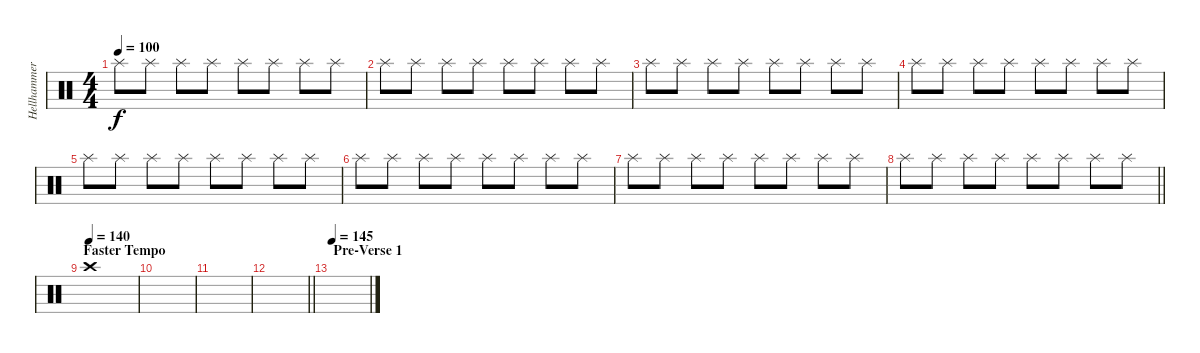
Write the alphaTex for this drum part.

\track ("Hellhammer 2" "Hellhammer") {instrument percussion}
\staff {score}
\articulation defaults
\ts (4 4)
\tempo 100
\clef neutral
\ks c "Splash (hit)".8{dy f} "Splash (hit)".8 "Splash (hit)".8 "Splash (hit)".8 "Splash (hit)".8 "Splash (hit)".8 "Splash (hit)".8 "Splash (hit)".8
|
"Splash (hit)".8 "Splash (hit)".8 "Splash (hit)".8 "Splash (hit)".8 "Splash (hit)".8 "Splash (hit)".8 "Splash (hit)".8 "Splash (hit)".8 |
"Splash (hit)".8 "Splash (hit)".8 "Splash (hit)".8 "Splash (hit)".8 "Splash (hit)".8 "Splash (hit)".8 "Splash (hit)".8 "Splash (hit)".8 |
"Splash (hit)".8 "Splash (hit)".8 "Splash (hit)".8 "Splash (hit)".8 "Splash (hit)".8 "Splash (hit)".8 "Splash (hit)".8 "Splash (hit)".8 |
"Splash (hit)".8 "Splash (hit)".8 "Splash (hit)".8 "Splash (hit)".8 "Splash (hit)".8 "Splash (hit)".8 "Splash (hit)".8 "Splash (hit)".8 |
"Splash (hit)".8 "Splash (hit)".8 "Splash (hit)".8 "Splash (hit)".8 "Splash (hit)".8 "Splash (hit)".8 "Splash (hit)".8 "Splash (hit)".8 |
"Splash (hit)".8 "Splash (hit)".8 "Splash (hit)".8 "Splash (hit)".8 "Splash (hit)".8 "Splash (hit)".8 "Splash (hit)".8 "Splash (hit)".8 |
\barLineRight lightlight "Splash (hit)".8 "Splash (hit)".8 "Splash (hit)".8 "Splash (hit)".8 "Splash (hit)".8 "Splash (hit)".8 "Splash (hit)".8 "Splash (hit)".8
|
\section ("" "Faster Tempo")
\tempo 135
\tempo (140)
"Crash high (hit)".1 |
|
|
\barLineRight lightlight
|
\section ("" "Pre-Verse 1")
\tempo 145
